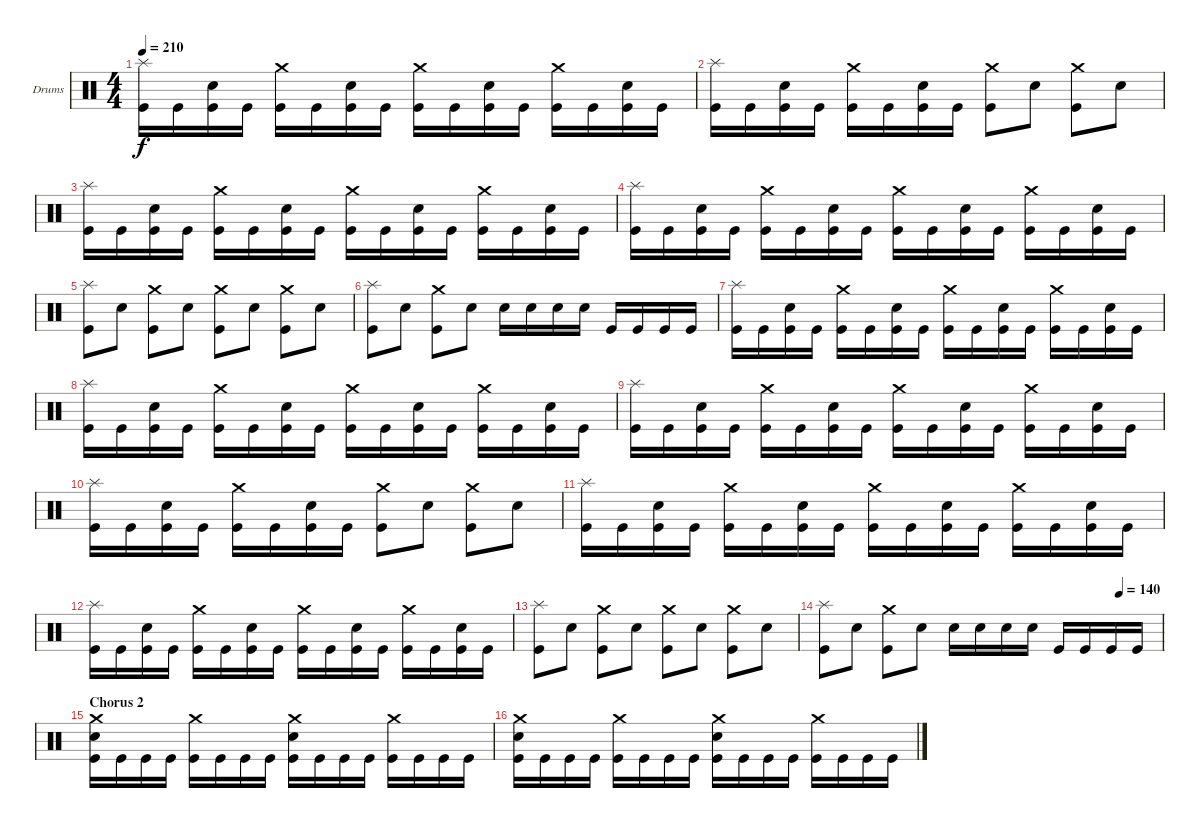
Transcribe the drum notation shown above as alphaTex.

\defaultSystemsLayout 4
\bracketExtendMode groupsimilarinstruments
\firstSystemTrackNameOrientation horizontal
\otherSystemsTrackNameOrientation horizontal
\track ("Ventor" "Drums") {instrument percussion}
\staff {score}
\articulation defaults
\ts (4 4)
\tempo 210
\clef neutral
\scale
0.5
\ks c
("Kick (hit)" "Splash (hit)").16{dy f} "Kick (hit)".16 ("Snare (hit) 2" "Kick (hit)").16 "Kick (hit)".16 ("Kick (hit)" "Crash medium (hit)").16 "Kick (hit)".16 ("Snare (hit) 2" "Kick (hit)").16 "Kick (hit)".16 ("Kick (hit)" "Crash medium (hit)").16 "Kick (hit)".16 ("Snare (hit) 2" "Kick (hit)").16 "Kick (hit)".16 ("Kick (hit)" "Crash medium (hit)").16 "Kick (hit)".16 ("Snare (hit) 2" "Kick (hit)").16 "Kick (hit)".16 |
\scale
0.5 ("Kick (hit)" "Splash (hit)").16 "Kick (hit)".16 ("Snare (hit) 2" "Kick (hit)").16 "Kick (hit)".16 ("Kick (hit)" "Crash medium (hit)").16 "Kick (hit)".16 ("Snare (hit) 2" "Kick (hit)").16 "Kick (hit)".16 ("Kick (hit)" "Crash medium (hit)").8 "Snare (hit) 2".8 ("Kick (hit)" "Crash medium (hit)").8 "Snare (hit) 2".8 |
\scale
0.5 ("Kick (hit)" "Splash (hit)").16 "Kick (hit)".16 ("Snare (hit) 2" "Kick (hit)").16 "Kick (hit)".16 ("Kick (hit)" "Crash medium (hit)").16 "Kick (hit)".16 ("Snare (hit) 2" "Kick (hit)").16 "Kick (hit)".16 ("Kick (hit)" "Crash medium (hit)").16 "Kick (hit)".16 ("Snare (hit) 2" "Kick (hit)").16 "Kick (hit)".16 ("Kick (hit)" "Crash medium (hit)").16 "Kick (hit)".16 ("Snare (hit) 2" "Kick (hit)").16 "Kick (hit)".16 |
\scale
0.5 ("Kick (hit)" "Splash (hit)").16 "Kick (hit)".16 ("Snare (hit) 2" "Kick (hit)").16 "Kick (hit)".16 ("Kick (hit)" "Crash medium (hit)").16 "Kick (hit)".16 ("Snare (hit) 2" "Kick (hit)").16 "Kick (hit)".16 ("Kick (hit)" "Crash medium (hit)").16 "Kick (hit)".16 ("Snare (hit) 2" "Kick (hit)").16 "Kick (hit)".16 ("Kick (hit)" "Crash medium (hit)").16 "Kick (hit)".16 ("Snare (hit) 2" "Kick (hit)").16 "Kick (hit)".16 |
\scale
0.5 ("Kick (hit)" "Splash (hit)").8 "Snare (hit) 2".8 ("Kick (hit)" "Crash medium (hit)").8 "Snare (hit) 2".8 ("Kick (hit)" "Crash medium (hit)").8 "Snare (hit) 2".8 ("Kick (hit)" "Crash medium (hit)").8 "Snare (hit) 2".8 |
\scale
0.5 ("Kick (hit)" "Splash (hit)").8 "Snare (hit) 2".8 ("Kick (hit)" "Crash medium (hit)").8 "Snare (hit) 2".8 "Snare (hit) 2".16 "Snare (hit) 2".16 "Snare (hit) 2".16 "Snare (hit) 2".16 "Kick (hit)".16 "Kick (hit)".16 "Kick (hit)".16 "Kick (hit)".16 |
\scale
0.5 ("Kick (hit)" "Splash (hit)").16 "Kick (hit)".16 ("Snare (hit) 2" "Kick (hit)").16 "Kick (hit)".16 ("Kick (hit)" "Crash medium (hit)").16 "Kick (hit)".16 ("Snare (hit) 2" "Kick (hit)").16 "Kick (hit)".16 ("Kick (hit)" "Crash medium (hit)").16 "Kick (hit)".16 ("Snare (hit) 2" "Kick (hit)").16 "Kick (hit)".16 ("Kick (hit)" "Crash medium (hit)").16 "Kick (hit)".16 ("Snare (hit) 2" "Kick (hit)").16 "Kick (hit)".16 |
\scale
0.5 ("Kick (hit)" "Splash (hit)").16 "Kick (hit)".16 ("Snare (hit) 2" "Kick (hit)").16 "Kick (hit)".16 ("Kick (hit)" "Crash medium (hit)").16 "Kick (hit)".16 ("Snare (hit) 2" "Kick (hit)").16 "Kick (hit)".16 ("Kick (hit)" "Crash medium (hit)").16 "Kick (hit)".16 ("Snare (hit) 2" "Kick (hit)").16 "Kick (hit)".16 ("Kick (hit)" "Crash medium (hit)").16 "Kick (hit)".16 ("Snare (hit) 2" "Kick (hit)").16 "Kick (hit)".16 |
\scale
0.5 ("Kick (hit)" "Splash (hit)").16 "Kick (hit)".16 ("Snare (hit) 2" "Kick (hit)").16 "Kick (hit)".16 ("Kick (hit)" "Crash medium (hit)").16 "Kick (hit)".16 ("Snare (hit) 2" "Kick (hit)").16 "Kick (hit)".16 ("Kick (hit)" "Crash medium (hit)").16 "Kick (hit)".16 ("Snare (hit) 2" "Kick (hit)").16 "Kick (hit)".16 ("Kick (hit)" "Crash medium (hit)").16 "Kick (hit)".16 ("Snare (hit) 2" "Kick (hit)").16 "Kick (hit)".16 |
\scale
0.5 ("Kick (hit)" "Splash (hit)").16 "Kick (hit)".16 ("Snare (hit) 2" "Kick (hit)").16 "Kick (hit)".16 ("Kick (hit)" "Crash medium (hit)").16 "Kick (hit)".16 ("Snare (hit) 2" "Kick (hit)").16 "Kick (hit)".16 ("Kick (hit)" "Crash medium (hit)").8 "Snare (hit) 2".8 ("Kick (hit)" "Crash medium (hit)").8 "Snare (hit) 2".8 |
\scale
0.5 ("Kick (hit)" "Splash (hit)").16 "Kick (hit)".16 ("Snare (hit) 2" "Kick (hit)").16 "Kick (hit)".16 ("Kick (hit)" "Crash medium (hit)").16 "Kick (hit)".16 ("Snare (hit) 2" "Kick (hit)").16 "Kick (hit)".16 ("Kick (hit)" "Crash medium (hit)").16 "Kick (hit)".16 ("Snare (hit) 2" "Kick (hit)").16 "Kick (hit)".16 ("Kick (hit)" "Crash medium (hit)").16 "Kick (hit)".16 ("Snare (hit) 2" "Kick (hit)").16 "Kick (hit)".16 |
\scale
0.5 ("Kick (hit)" "Splash (hit)").16 "Kick (hit)".16 ("Snare (hit) 2" "Kick (hit)").16 "Kick (hit)".16 ("Kick (hit)" "Crash medium (hit)").16 "Kick (hit)".16 ("Snare (hit) 2" "Kick (hit)").16 "Kick (hit)".16 ("Kick (hit)" "Crash medium (hit)").16 "Kick (hit)".16 ("Snare (hit) 2" "Kick (hit)").16 "Kick (hit)".16 ("Kick (hit)" "Crash medium (hit)").16 "Kick (hit)".16 ("Snare (hit) 2" "Kick (hit)").16 "Kick (hit)".16 |
\scale
0.5 ("Kick (hit)" "Splash (hit)").8 "Snare (hit) 2".8 ("Kick (hit)" "Crash medium (hit)").8 "Snare (hit) 2".8 ("Kick (hit)" "Crash medium (hit)").8 "Snare (hit) 2".8 ("Kick (hit)" "Crash medium (hit)").8 "Snare (hit) 2".8 |
\tempo (140 0.875)
\scale
0.5 ("Kick (hit)" "Splash (hit)").8 "Snare (hit) 2".8 ("Kick (hit)" "Crash medium (hit)").8 "Snare (hit) 2".8 "Snare (hit) 2".16 "Snare (hit) 2".16 "Snare (hit) 2".16 "Snare (hit) 2".16 "Kick (hit)".16 "Kick (hit)".16 "Kick (hit)".16 "Kick (hit)".16 |
\section ("" "Chorus 2")
\scale
0.5 ("Kick (hit)" "Snare (hit) 2" "Crash medium (hit)").16 "Kick (hit)".16 "Kick (hit)".16 "Kick (hit)".16 ("Kick (hit)" "Crash medium (hit)").16 "Kick (hit)".16 "Kick (hit)".16 "Kick (hit)".16 ("Kick (hit)" "Snare (hit) 2" "Crash medium (hit)").16 "Kick (hit)".16 "Kick (hit)".16 "Kick (hit)".16 ("Kick (hit)" "Crash medium (hit)").16 "Kick (hit)".16 "Kick (hit)".16 "Kick (hit)".16 |
\scale
0.5 ("Kick (hit)" "Snare (hit) 2" "Crash medium (hit)").16 "Kick (hit)".16 "Kick (hit)".16 "Kick (hit)".16 ("Kick (hit)" "Crash medium (hit)").16 "Kick (hit)".16 "Kick (hit)".16 "Kick (hit)".16 ("Kick (hit)" "Snare (hit) 2" "Crash medium (hit)").16 "Kick (hit)".16 "Kick (hit)".16 "Kick (hit)".16 ("Kick (hit)" "Crash medium (hit)").16 "Kick (hit)".16 "Kick (hit)".16 "Kick (hit)".16
